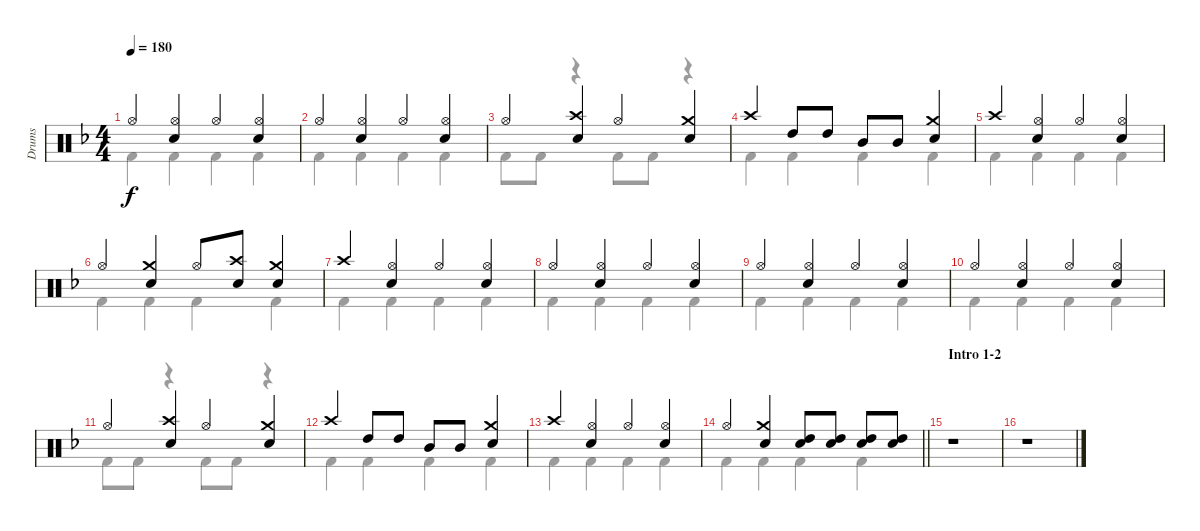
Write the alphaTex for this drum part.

\track ("Drums" "Drums") {instrument percussion}
\staff {score}
\articulation defaults
\voice
\ts (4 4)
\tempo 180
\clef neutral
\ks f "Hi-Hat (open)".4{dy f}
("Hi-Hat (open)" "Snare (hit) 2").4 "Hi-Hat (open)".4 ("Hi-Hat (open)" "Snare (hit) 2").4 |
"Hi-Hat (open)".4 ("Hi-Hat (open)" "Snare (hit) 2").4 "Hi-Hat (open)".4 ("Hi-Hat (open)" "Snare (hit) 2").4 |
"Hi-Hat (open)".4 ("Crash high (hit)" "Snare (hit) 2").4 "Hi-Hat (open)".4 ("Crash medium (hit)" "Snare (hit) 2").4 |
"Crash high (hit)".4 "High Tom (hit)".8 "High Tom (hit)".8 "Mid Tom (hit)".8 "Mid Tom (hit)".8 ("Crash medium (hit)" "Snare (hit) 2").4 |
"Crash high (hit)".4 ("Hi-Hat (open)" "Snare (hit) 2").4 "Hi-Hat (open)".4 ("Hi-Hat (open)" "Snare (hit) 2").4 |
"Hi-Hat (open)".4 ("Crash medium (hit)" "Snare (hit) 2").4 "Hi-Hat (open)".8 ("Crash high (hit)" "Snare (hit) 2").8 ("Crash medium (hit)" "Snare (hit) 2").4 |
"Crash high (hit)".4 ("Hi-Hat (open)" "Snare (hit) 2").4 "Hi-Hat (open)".4 ("Hi-Hat (open)" "Snare (hit) 2").4 |
"Hi-Hat (open)".4 ("Hi-Hat (open)" "Snare (hit) 2").4 "Hi-Hat (open)".4 ("Hi-Hat (open)" "Snare (hit) 2").4 |
"Hi-Hat (open)".4 ("Hi-Hat (open)" "Snare (hit) 2").4 "Hi-Hat (open)".4 ("Hi-Hat (open)" "Snare (hit) 2").4 |
"Hi-Hat (open)".4 ("Hi-Hat (open)" "Snare (hit) 2").4 "Hi-Hat (open)".4 ("Hi-Hat (open)" "Snare (hit) 2").4 |
"Hi-Hat (open)".4 ("Crash high (hit)" "Snare (hit) 2").4 "Hi-Hat (open)".4 ("Crash medium (hit)" "Snare (hit) 2").4 |
"Crash high (hit)".4 "High Tom (hit)".8 "High Tom (hit)".8 "Mid Tom (hit)".8 "Mid Tom (hit)".8 ("Crash medium (hit)" "Snare (hit) 2").4 |
"Crash high (hit)".4 ("Hi-Hat (open)" "Snare (hit) 2").4 "Hi-Hat (open)".4 ("Hi-Hat (open)" "Snare (hit) 2").4 |
\barLineRight lightlight "Hi-Hat (open)".4
("Crash medium (hit)" "Snare (hit) 2").4 ("High Tom (hit)" "Snare (hit) 2").8 ("High Tom (hit)" "Snare (hit) 2").8 ("High Tom (hit)" "Snare (hit) 2").8 ("High Tom (hit)" "Snare (hit) 2").8 |
\section ("" "Intro 1-2")
r.1 |
r.1
\voice
\clef neutral
\ottava regular
\simile none
\ks f "Kick (hit) 2".4{dy f} "Kick (hit) 2".4 "Kick (hit) 2".4 "Kick (hit) 2".4
|
"Kick (hit) 2".4 "Kick (hit) 2".4 "Kick (hit) 2".4 "Kick (hit) 2".4 |
"Kick (hit) 2".8 "Kick (hit) 2".8 r.4 "Kick (hit) 2".8 "Kick (hit) 2".8 r.4 |
"Kick (hit) 2".4 "Kick (hit) 2".4 "Kick (hit) 2".4 "Kick (hit) 2".4 |
"Kick (hit) 2".4 "Kick (hit) 2".4 "Kick (hit) 2".4 "Kick (hit) 2".4 |
"Kick (hit) 2".4 "Kick (hit) 2".4 "Kick (hit) 2".4 "Kick (hit) 2".4 |
"Kick (hit) 2".4 "Kick (hit) 2".4 "Kick (hit) 2".4 "Kick (hit) 2".4 |
"Kick (hit) 2".4 "Kick (hit) 2".4 "Kick (hit) 2".4 "Kick (hit) 2".4 |
"Kick (hit) 2".4 "Kick (hit) 2".4 "Kick (hit) 2".4 "Kick (hit) 2".4 |
"Kick (hit) 2".4 "Kick (hit) 2".4 "Kick (hit) 2".4 "Kick (hit) 2".4 |
"Kick (hit) 2".8 "Kick (hit) 2".8 r.4 "Kick (hit) 2".8 "Kick (hit) 2".8 r.4 |
"Kick (hit) 2".4 "Kick (hit) 2".4 "Kick (hit) 2".4 "Kick (hit) 2".4 |
"Kick (hit) 2".4 "Kick (hit) 2".4 "Kick (hit) 2".4 "Kick (hit) 2".4 |
\barLineRight lightlight "Kick (hit) 2".4 "Kick (hit) 2".4 "Kick (hit) 2".4 "Kick (hit) 2".4
|
r.1 |
r.1
